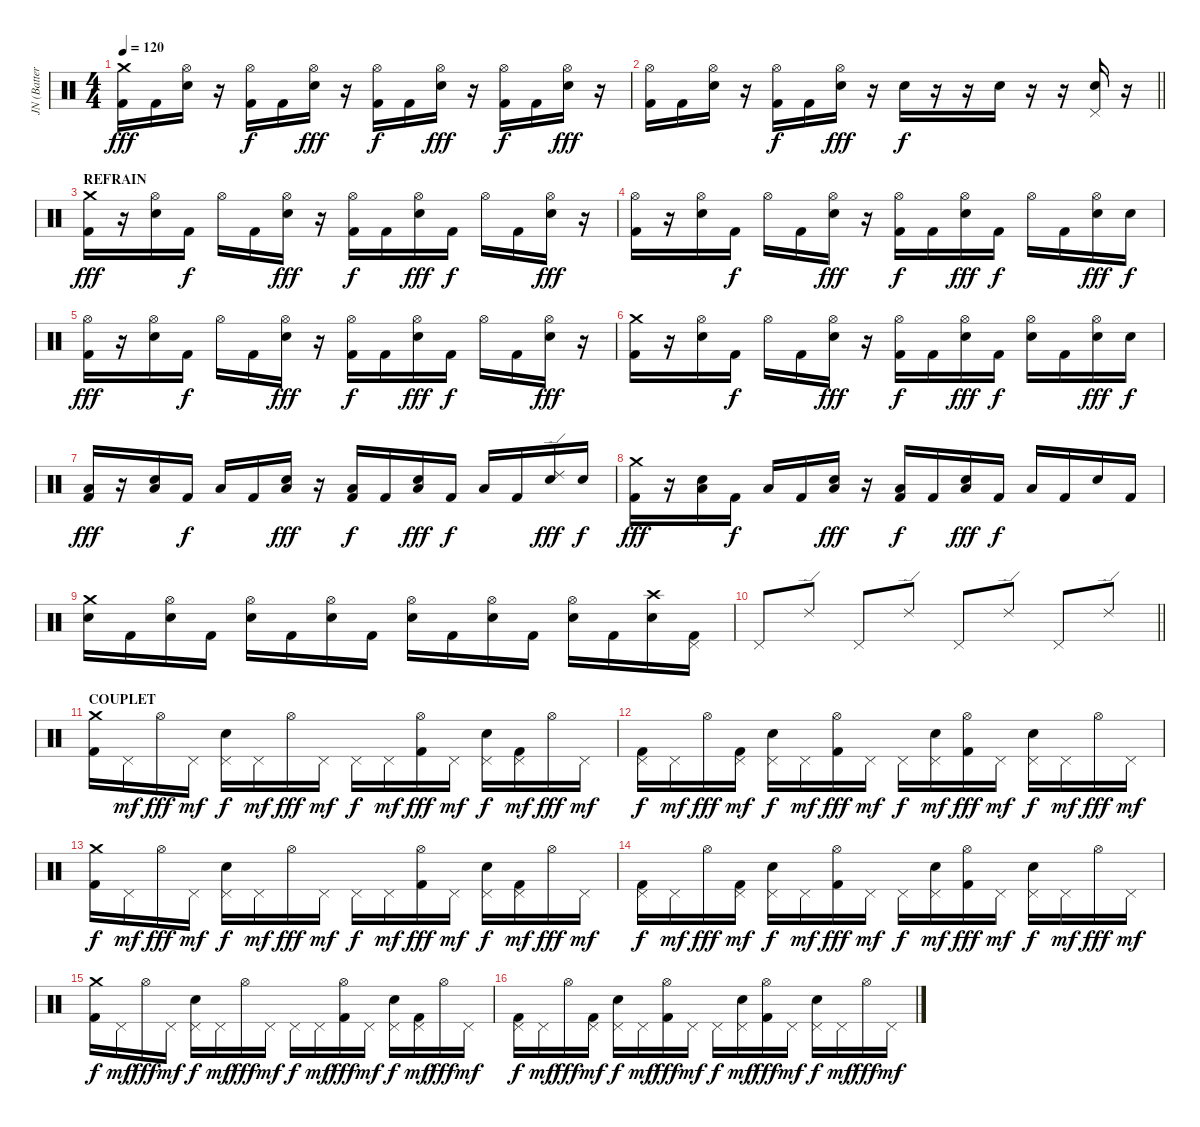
\track ("JN (Batterie)" "JN (Batter") {instrument percussion}
\staff {score}
\articulation defaults
\ts (4 4)
\tempo 120
\clef neutral
\ks c
("Crash medium (hit)" "Kick (hit) 2").16{dy fff} "Kick (hit) 2".16 ("Hi-Hat (open)" "Electric Snare (hit)").16 r.16 ("Hi-Hat (open)" "Kick (hit) 2").16{dy f} "Kick (hit) 2".16 ("Hi-Hat (open)" "Electric Snare (hit)").16{dy fff} r.16 ("Hi-Hat (open)" "Kick (hit) 2").16{dy f} "Kick (hit) 2".16 ("Hi-Hat (open)" "Electric Snare (hit)").16{dy fff} r.16 ("Hi-Hat (open)" "Kick (hit) 2").16{dy f} "Kick (hit) 2".16 ("Hi-Hat (open)" "Electric Snare (hit)").16{dy fff} r.16 |
\barLineRight lightlight
("Hi-Hat (open)" "Kick (hit) 2").16 "Kick (hit) 2".16 ("Hi-Hat (open)" "Electric Snare (hit)").16 r.16 ("Hi-Hat (open)" "Kick (hit) 2").16{dy f} "Kick (hit) 2".16 ("Hi-Hat (open)" "Electric Snare (hit)").16{dy fff} r.16 "Electric Snare (hit)".16{dy f} r.16 r.16 "Electric Snare (hit)".16 r.16 r.16 ("Pedal Hi-Hat (hit)" "Electric Snare (hit)").16 r.16 |
\section ("" "REFRAIN")
("Crash medium (hit)" "Kick (hit) 2").16{dy fff} r.16 ("Hi-Hat (open)" "Electric Snare (hit)").16 "Kick (hit) 2".16{dy f} "Hi-Hat (open)".16 "Kick (hit) 2".16 ("Hi-Hat (open)" "Electric Snare (hit)").16{dy fff} r.16 ("Hi-Hat (open)" "Kick (hit) 2").16{dy f} "Kick (hit) 2".16 ("Hi-Hat (open)" "Electric Snare (hit)").16{dy fff} "Kick (hit) 2".16{dy f} "Hi-Hat (open)".16 "Kick (hit) 2".16 ("Hi-Hat (open)" "Electric Snare (hit)").16{dy fff} r.16 |
("Hi-Hat (open)" "Kick (hit) 2").16 r.16 ("Hi-Hat (open)" "Electric Snare (hit)").16 "Kick (hit) 2".16{dy f} "Hi-Hat (open)".16 "Kick (hit) 2".16 ("Hi-Hat (open)" "Electric Snare (hit)").16{dy fff} r.16 ("Hi-Hat (open)" "Kick (hit) 2").16{dy f} "Kick (hit) 2".16 ("Hi-Hat (open)" "Electric Snare (hit)").16{dy fff} "Kick (hit) 2".16{dy f} "Hi-Hat (open)".16 "Kick (hit) 2".16 ("Hi-Hat (open)" "Electric Snare (hit)").16{dy fff} "Electric Snare (hit)".16{dy f} |
("Hi-Hat (open)" "Kick (hit) 2").16{dy fff} r.16 ("Hi-Hat (open)" "Electric Snare (hit)").16 "Kick (hit) 2".16{dy f} "Hi-Hat (open)".16 "Kick (hit) 2".16 ("Hi-Hat (open)" "Electric Snare (hit)").16{dy fff} r.16 ("Hi-Hat (open)" "Kick (hit) 2").16{dy f} "Kick (hit) 2".16 ("Hi-Hat (open)" "Electric Snare (hit)").16{dy fff} "Kick (hit) 2".16{dy f} "Hi-Hat (open)".16 "Kick (hit) 2".16 ("Hi-Hat (open)" "Electric Snare (hit)").16{dy fff} r.16 |
("Crash medium (hit)" "Kick (hit) 2").16 r.16 ("Hi-Hat (open)" "Electric Snare (hit)").16 "Kick (hit) 2".16{dy f} "Hi-Hat (open)".16 "Kick (hit) 2".16 ("Hi-Hat (open)" "Electric Snare (hit)").16{dy fff} r.16 ("Hi-Hat (open)" "Kick (hit) 2").16{dy f} "Kick (hit) 2".16 ("Hi-Hat (open)" "Electric Snare (hit)").16{dy fff} "Kick (hit) 2".16{dy f} ("Hi-Hat (open)" "Electric Snare (hit)").16 "Kick (hit) 2".16 ("Hi-Hat (open)" "Electric Snare (hit)").16{dy fff} "Electric Snare (hit)".16{dy f} |
("Low Tom (hit)" "Kick (hit) 2").16{dy fff} r.16 ("Low Tom (hit)" "Electric Snare (hit)").16 "Kick (hit) 2".16{dy f} "Low Tom (hit)".16 "Kick (hit) 2".16 ("Low Tom (hit)" "Electric Snare (hit)").16{dy fff} r.16 ("Low Tom (hit)" "Kick (hit) 2").16{dy f} "Kick (hit) 2".16 ("Low Tom (hit)" "Electric Snare (hit)").16{dy fff} "Kick (hit) 2".16{dy f} "Low Tom (hit)".16 "Kick (hit) 2".16 ("Ride (edge) 2" "Electric Snare (hit)").16{dy fff} "Electric Snare (hit)".16{dy f} |
("Crash medium (hit)" "Kick (hit) 2").16{dy fff} r.16 ("Low Tom (hit)" "Electric Snare (hit)").16 "Kick (hit) 2".16{dy f} "Low Tom (hit)".16 "Kick (hit) 2".16 ("Low Tom (hit)" "Electric Snare (hit)").16{dy fff} r.16 ("Low Tom (hit)" "Kick (hit) 2").16{dy f} "Kick (hit) 2".16 ("Low Tom (hit)" "Electric Snare (hit)").16{dy fff} "Kick (hit) 2".16{dy f} "Low Tom (hit)".16 "Kick (hit) 2".16 "Electric Snare (hit)".16 "Kick (hit) 2".16 |
("Crash medium (hit)" "Electric Snare (hit)").16 "Kick (hit) 2".16 ("Hi-Hat (open)" "Electric Snare (hit)").16 "Kick (hit) 2".16 ("Hi-Hat (open)" "Electric Snare (hit)").16 "Kick (hit) 2".16 ("Hi-Hat (open)" "Electric Snare (hit)").16 "Kick (hit) 2".16 ("Hi-Hat (open)" "Electric Snare (hit)").16 "Kick (hit) 2".16 ("Hi-Hat (open)" "Electric Snare (hit)").16 "Kick (hit) 2".16 ("Hi-Hat (open)" "Electric Snare (hit)").16 "Kick (hit) 2".16 ("Crash high (hit)" "Electric Snare (hit)").16 ("Pedal Hi-Hat (hit)" "Kick (hit) 2").16 |
\barLineRight lightlight "Pedal Hi-Hat (hit)".8 "Ride (edge) 2".8 "Pedal Hi-Hat (hit)".8 "Ride (edge) 2".8 "Pedal Hi-Hat (hit)".8 "Ride (edge) 2".8 "Pedal Hi-Hat (hit)".8 "Ride (edge) 2".8
|
\section ("" "COUPLET")
("Crash medium (hit)" "Kick (hit) 2").16 "Pedal Hi-Hat (hit)".16{dy mf} "Hi-Hat (open)".16{dy fff} "Pedal Hi-Hat (hit)".16{dy mf} ("Pedal Hi-Hat (hit)" "Electric Snare (hit)").16{dy f} "Pedal Hi-Hat (hit)".16{dy mf} "Hi-Hat (open)".16{dy fff} "Pedal Hi-Hat (hit)".16{dy mf} "Pedal Hi-Hat (hit)".16{dy f} "Pedal Hi-Hat (hit)".16{dy mf} ("Hi-Hat (open)" "Kick (hit) 2").16{dy fff} "Pedal Hi-Hat (hit)".16{dy mf} ("Pedal Hi-Hat (hit)" "Electric Snare (hit)").16{dy f} ("Pedal Hi-Hat (hit)" "Kick (hit) 2").16{dy mf} "Hi-Hat (open)".16{dy fff} "Pedal Hi-Hat (hit)".16{dy mf} |
("Pedal Hi-Hat (hit)" "Kick (hit) 2").16{dy f} "Pedal Hi-Hat (hit)".16{dy mf} "Hi-Hat (open)".16{dy fff} ("Pedal Hi-Hat (hit)" "Kick (hit) 2").16{dy mf} ("Pedal Hi-Hat (hit)" "Electric Snare (hit)").16{dy f} "Pedal Hi-Hat (hit)".16{dy mf} ("Hi-Hat (open)" "Kick (hit) 2").16{dy fff} "Pedal Hi-Hat (hit)".16{dy mf} "Pedal Hi-Hat (hit)".16{dy f} ("Pedal Hi-Hat (hit)" "Electric Snare (hit)").16{dy mf} ("Hi-Hat (open)" "Kick (hit) 2").16{dy fff} "Pedal Hi-Hat (hit)".16{dy mf} ("Pedal Hi-Hat (hit)" "Electric Snare (hit)").16{dy f} "Pedal Hi-Hat (hit)".16{dy mf} "Hi-Hat (open)".16{dy fff} "Pedal Hi-Hat (hit)".16{dy mf} |
("Crash medium (hit)" "Kick (hit) 2").16{dy f} "Pedal Hi-Hat (hit)".16{dy mf} "Hi-Hat (open)".16{dy fff} "Pedal Hi-Hat (hit)".16{dy mf} ("Pedal Hi-Hat (hit)" "Electric Snare (hit)").16{dy f} "Pedal Hi-Hat (hit)".16{dy mf} "Hi-Hat (open)".16{dy fff} "Pedal Hi-Hat (hit)".16{dy mf} "Pedal Hi-Hat (hit)".16{dy f} "Pedal Hi-Hat (hit)".16{dy mf} ("Hi-Hat (open)" "Kick (hit) 2").16{dy fff} "Pedal Hi-Hat (hit)".16{dy mf} ("Pedal Hi-Hat (hit)" "Electric Snare (hit)").16{dy f} ("Pedal Hi-Hat (hit)" "Kick (hit) 2").16{dy mf} "Hi-Hat (open)".16{dy fff} "Pedal Hi-Hat (hit)".16{dy mf} |
("Pedal Hi-Hat (hit)" "Kick (hit) 2").16{dy f} "Pedal Hi-Hat (hit)".16{dy mf} "Hi-Hat (open)".16{dy fff} ("Pedal Hi-Hat (hit)" "Kick (hit) 2").16{dy mf} ("Pedal Hi-Hat (hit)" "Electric Snare (hit)").16{dy f} "Pedal Hi-Hat (hit)".16{dy mf} ("Hi-Hat (open)" "Kick (hit) 2").16{dy fff} "Pedal Hi-Hat (hit)".16{dy mf} "Pedal Hi-Hat (hit)".16{dy f} ("Pedal Hi-Hat (hit)" "Electric Snare (hit)").16{dy mf} ("Hi-Hat (open)" "Kick (hit) 2").16{dy fff} "Pedal Hi-Hat (hit)".16{dy mf} ("Pedal Hi-Hat (hit)" "Electric Snare (hit)").16{dy f} "Pedal Hi-Hat (hit)".16{dy mf} "Hi-Hat (open)".16{dy fff} "Pedal Hi-Hat (hit)".16{dy mf} |
("Crash medium (hit)" "Kick (hit) 2").16{dy f} "Pedal Hi-Hat (hit)".16{dy mf} "Hi-Hat (open)".16{dy fff} "Pedal Hi-Hat (hit)".16{dy mf} ("Pedal Hi-Hat (hit)" "Electric Snare (hit)").16{dy f} "Pedal Hi-Hat (hit)".16{dy mf} "Hi-Hat (open)".16{dy fff} "Pedal Hi-Hat (hit)".16{dy mf} "Pedal Hi-Hat (hit)".16{dy f} "Pedal Hi-Hat (hit)".16{dy mf} ("Hi-Hat (open)" "Kick (hit) 2").16{dy fff} "Pedal Hi-Hat (hit)".16{dy mf} ("Pedal Hi-Hat (hit)" "Electric Snare (hit)").16{dy f} ("Pedal Hi-Hat (hit)" "Kick (hit) 2").16{dy mf} "Hi-Hat (open)".16{dy fff} "Pedal Hi-Hat (hit)".16{dy mf} |
("Pedal Hi-Hat (hit)" "Kick (hit) 2").16{dy f} "Pedal Hi-Hat (hit)".16{dy mf} "Hi-Hat (open)".16{dy fff} ("Pedal Hi-Hat (hit)" "Kick (hit) 2").16{dy mf} ("Pedal Hi-Hat (hit)" "Electric Snare (hit)").16{dy f} "Pedal Hi-Hat (hit)".16{dy mf} ("Hi-Hat (open)" "Kick (hit) 2").16{dy fff} "Pedal Hi-Hat (hit)".16{dy mf} "Pedal Hi-Hat (hit)".16{dy f} ("Pedal Hi-Hat (hit)" "Electric Snare (hit)").16{dy mf} ("Hi-Hat (open)" "Kick (hit) 2").16{dy fff} "Pedal Hi-Hat (hit)".16{dy mf} ("Pedal Hi-Hat (hit)" "Electric Snare (hit)").16{dy f} "Pedal Hi-Hat (hit)".16{dy mf} "Hi-Hat (open)".16{dy fff} "Pedal Hi-Hat (hit)".16{dy mf}
